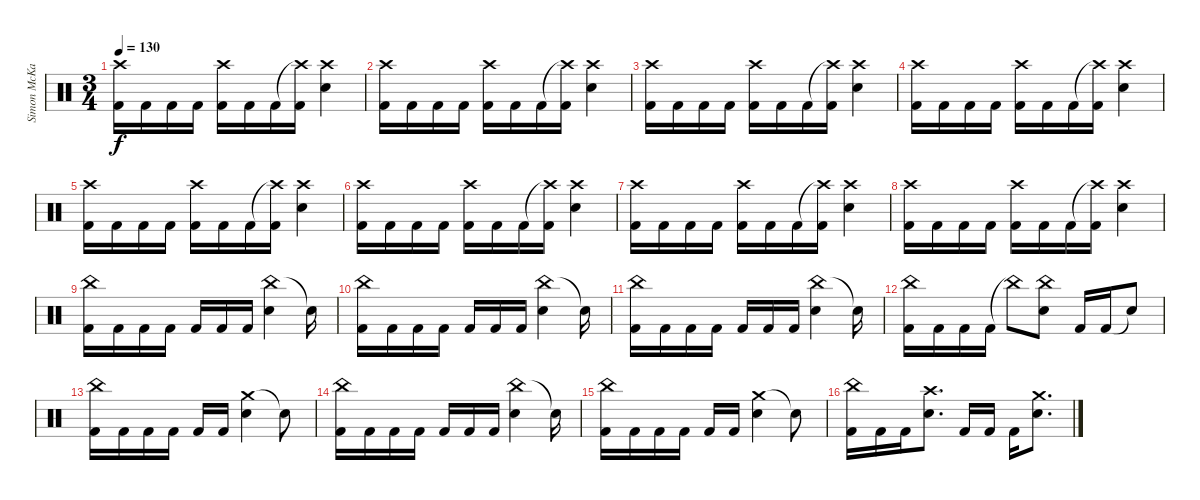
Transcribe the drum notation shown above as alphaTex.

\track ("Simon McKay" "Simon McKa") {instrument percussion}
\staff {score}
\articulation defaults
\ts (3 4)
\tempo 130
\clef neutral
\ks c
("Crash high (hit)" "Kick (hit) 2").16{dy f} "Kick (hit) 2".16 "Kick (hit) 2".16 "Kick (hit) 2".16 ("Crash high (hit)" "Kick (hit) 2").16 "Kick (hit) 2".16 "Kick (hit) 2".16 ("Crash high (hit)"{t} "Kick (hit) 2").16 ("Crash high (hit)" "Snare (hit) 2").4 |
("Crash high (hit)" "Kick (hit) 2").16 "Kick (hit) 2".16 "Kick (hit) 2".16 "Kick (hit) 2".16 ("Crash high (hit)" "Kick (hit) 2").16 "Kick (hit) 2".16 "Kick (hit) 2".16 ("Crash high (hit)"{t} "Kick (hit) 2").16 ("Crash high (hit)" "Snare (hit) 2").4 |
("Crash high (hit)" "Kick (hit) 2").16 "Kick (hit) 2".16 "Kick (hit) 2".16 "Kick (hit) 2".16 ("Crash high (hit)" "Kick (hit) 2").16 "Kick (hit) 2".16 "Kick (hit) 2".16 ("Crash high (hit)"{t} "Kick (hit) 2").16 ("Crash high (hit)" "Snare (hit) 2").4 |
("Crash high (hit)" "Kick (hit) 2").16 "Kick (hit) 2".16 "Kick (hit) 2".16 "Kick (hit) 2".16 ("Crash high (hit)" "Kick (hit) 2").16 "Kick (hit) 2".16 "Kick (hit) 2".16 ("Crash high (hit)"{t} "Kick (hit) 2").16 ("Crash high (hit)" "Snare (hit) 2").4 |
("Crash high (hit)" "Kick (hit) 2").16 "Kick (hit) 2".16 "Kick (hit) 2".16 "Kick (hit) 2".16 ("Crash high (hit)" "Kick (hit) 2").16 "Kick (hit) 2".16 "Kick (hit) 2".16 ("Crash high (hit)"{t} "Kick (hit) 2").16 ("Crash high (hit)" "Snare (hit) 2").4 |
("Crash high (hit)" "Kick (hit) 2").16 "Kick (hit) 2".16 "Kick (hit) 2".16 "Kick (hit) 2".16 ("Crash high (hit)" "Kick (hit) 2").16 "Kick (hit) 2".16 "Kick (hit) 2".16 ("Crash high (hit)"{t} "Kick (hit) 2").16 ("Crash high (hit)" "Snare (hit) 2").4 |
("Crash high (hit)" "Kick (hit) 2").16 "Kick (hit) 2".16 "Kick (hit) 2".16 "Kick (hit) 2".16 ("Crash high (hit)" "Kick (hit) 2").16 "Kick (hit) 2".16 "Kick (hit) 2".16 ("Crash high (hit)"{t} "Kick (hit) 2").16 ("Crash high (hit)" "Snare (hit) 2").4 |
("Crash high (hit)" "Kick (hit) 2").16 "Kick (hit) 2".16 "Kick (hit) 2".16 "Kick (hit) 2".16 ("Crash high (hit)" "Kick (hit) 2").16 "Kick (hit) 2".16 "Kick (hit) 2".16 ("Crash high (hit)"{t} "Kick (hit) 2").16 ("Crash high (hit)" "Snare (hit) 2").4 |
("China (hit)" "Kick (hit) 2").16 "Kick (hit) 2".16 "Kick (hit) 2".16 "Kick (hit) 2".16 "Kick (hit) 2".16 "Kick (hit) 2".16 "Kick (hit) 2".16 ("China (hit)" "Snare (hit) 2").4 "Snare (hit)"{t}.16 |
("China (hit)" "Kick (hit) 2").16 "Kick (hit) 2".16 "Kick (hit) 2".16 "Kick (hit) 2".16 "Kick (hit) 2".16 "Kick (hit) 2".16 "Kick (hit) 2".16 ("China (hit)" "Snare (hit) 2").4 "Snare (hit)"{t}.16 |
("China (hit)" "Kick (hit) 2").16 "Kick (hit) 2".16 "Kick (hit) 2".16 "Kick (hit) 2".16 "Kick (hit) 2".16 "Kick (hit) 2".16 "Kick (hit) 2".16 ("China (hit)" "Snare (hit) 2").4 "Snare (hit)"{t}.16 |
("China (hit)" "Kick (hit) 2").16 "Kick (hit) 2".16 "Kick (hit) 2".16 "Kick (hit) 2".16 "China (hit)"{t}.8 ("China (hit)" "Snare (hit) 2").8 "Kick (hit) 2".16 "Kick (hit) 2".16 "Snare (hit)"{t}.8 |
("China (hit)" "Kick (hit) 2").16 "Kick (hit) 2".16 "Kick (hit) 2".16 "Kick (hit) 2".16 "Kick (hit) 2".16 "Kick (hit) 2".16 ("Crash medium (hit)" "Snare (hit) 2").4 "Snare (hit)"{t}.8 |
("China (hit)" "Kick (hit) 2").16 "Kick (hit) 2".16 "Kick (hit) 2".16 "Kick (hit) 2".16 "Kick (hit) 2".16 "Kick (hit) 2".16 "Kick (hit) 2".16 ("China (hit)" "Snare (hit) 2").4 "Snare (hit)"{t}.16 |
("China (hit)" "Kick (hit) 2").16 "Kick (hit) 2".16 "Kick (hit) 2".16 "Kick (hit) 2".16 "Kick (hit) 2".16 "Kick (hit) 2".16 ("Crash medium (hit)" "Snare (hit) 2").4 "Snare (hit)"{t}.8 |
("China (hit)" "Kick (hit) 2").16 "Kick (hit) 2".16 "Kick (hit) 2".16 ("Crash high (hit)" "Snare (hit) 2").8{d} "Kick (hit) 2".16 "Kick (hit) 2".16 "Kick (hit) 2".16 ("Crash medium (hit)" "Snare (hit) 2").8{d}
